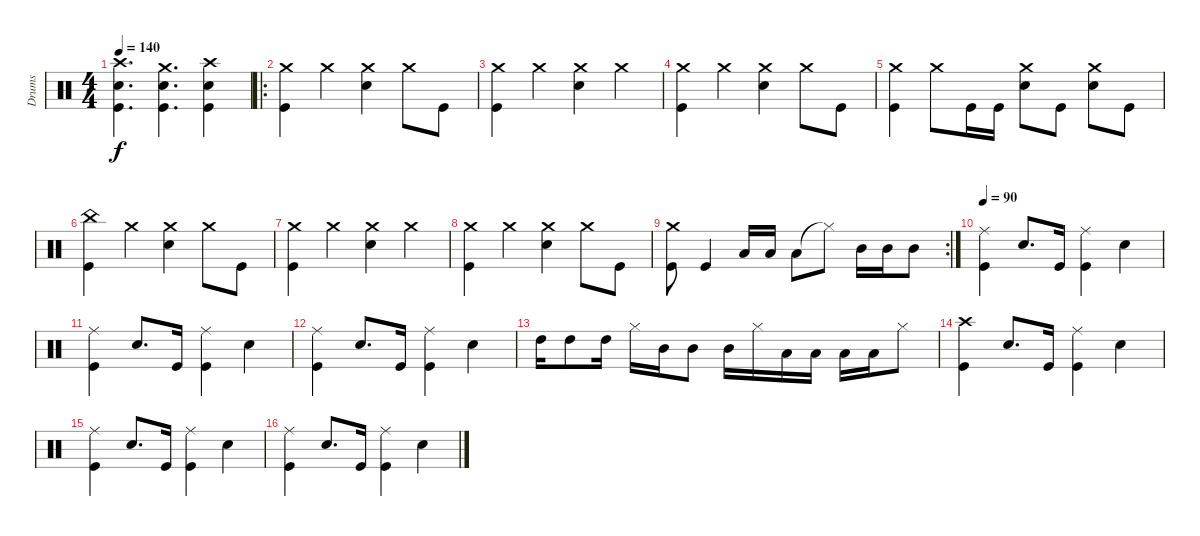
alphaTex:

\track ("Drums" "Drums") {instrument percussion}
\staff {score}
\articulation defaults
\ts (4 4)
\tempo 140
\clef neutral
\ks c
("Kick (hit)" "Snare (hit) 2" "Crash high (hit)").4{d dy f} ("Kick (hit)" "Snare (hit) 2" "Crash medium (hit)").4{d} ("Kick (hit)" "Snare (hit) 2" "Crash high (hit)").4 |
\ro
("Kick (hit)" "Crash medium (hit)").4 "Crash medium (hit)".4 ("Snare (hit) 2" "Crash medium (hit)").4 "Crash medium (hit)".8 "Kick (hit)".8 |
("Kick (hit)" "Crash medium (hit)").4 "Crash medium (hit)".4 ("Snare (hit) 2" "Crash medium (hit)").4 "Crash medium (hit)".4 |
("Kick (hit)" "Crash medium (hit)").4 "Crash medium (hit)".4 ("Snare (hit) 2" "Crash medium (hit)").4 "Crash medium (hit)".8 "Kick (hit)".8 |
("Kick (hit)" "Crash medium (hit)").4 "Crash medium (hit)".8 "Kick (hit)".16 "Kick (hit)".16 ("Snare (hit) 2" "Crash medium (hit)").8 "Kick (hit)".8 ("Snare (hit) 2" "Crash medium (hit)").8 "Kick (hit)".8 |
("Kick (hit)" "China (hit)").4 "Crash medium (hit)".4 ("Snare (hit) 2" "Crash medium (hit)").4 "Crash medium (hit)".8 "Kick (hit)".8 |
("Kick (hit)" "Crash medium (hit)").4 "Crash medium (hit)".4 ("Snare (hit) 2" "Crash medium (hit)").4 "Crash medium (hit)".4 |
("Kick (hit)" "Crash medium (hit)").4 "Crash medium (hit)".4 ("Snare (hit) 2" "Crash medium (hit)").4 "Crash medium (hit)".8 "Kick (hit)".8 |
\rc 2
("Kick (hit)" "Crash medium (hit)").8 "Kick (hit)".4 "Low Tom (hit)".16 "Low Tom (hit)".16 "Low Tom (hit)".8 "Hi-Hat (closed)"{t}.8 "Mid Tom (hit)".16 "Mid Tom (hit)".16 "Mid Tom (hit)".8 |
\tempo 90
("Kick (hit)" "Ride (middle)").4 "Snare (hit) 2".8{d} "Kick (hit)".16 ("Kick (hit)" "Ride (middle)").4 "Snare (hit) 2".4 |
("Kick (hit)" "Ride (middle)").4 "Snare (hit) 2".8{d} "Kick (hit)".16 ("Kick (hit)" "Ride (middle)").4 "Snare (hit) 2".4 |
("Kick (hit)" "Ride (middle)").4 "Snare (hit) 2".8{d} "Kick (hit)".16 ("Kick (hit)" "Ride (middle)").4 "Snare (hit) 2".4 |
"High Tom (hit)".16 "High Tom (hit)".8 "High Tom (hit)".16 "Hi-Hat (closed)".16 "Mid Tom (hit)".16 "Mid Tom (hit)".8 "Mid Tom (hit)".16 "Hi-Hat (closed)".16 "Low Tom (hit)".16 "Low Tom (hit)".16 "Low Tom (hit)".16 "Low Tom (hit)".16 "Hi-Hat (closed)".8 |
("Kick (hit)" "Crash high (hit)").4 "Snare (hit) 2".8{d} "Kick (hit)".16 ("Kick (hit)" "Ride (middle)").4 "Snare (hit) 2".4 |
("Kick (hit)" "Ride (middle)").4 "Snare (hit) 2".8{d} "Kick (hit)".16 ("Kick (hit)" "Ride (middle)").4 "Snare (hit) 2".4 |
("Kick (hit)" "Ride (middle)").4 "Snare (hit) 2".8{d} "Kick (hit)".16 ("Kick (hit)" "Ride (middle)").4 "Snare (hit) 2".4
